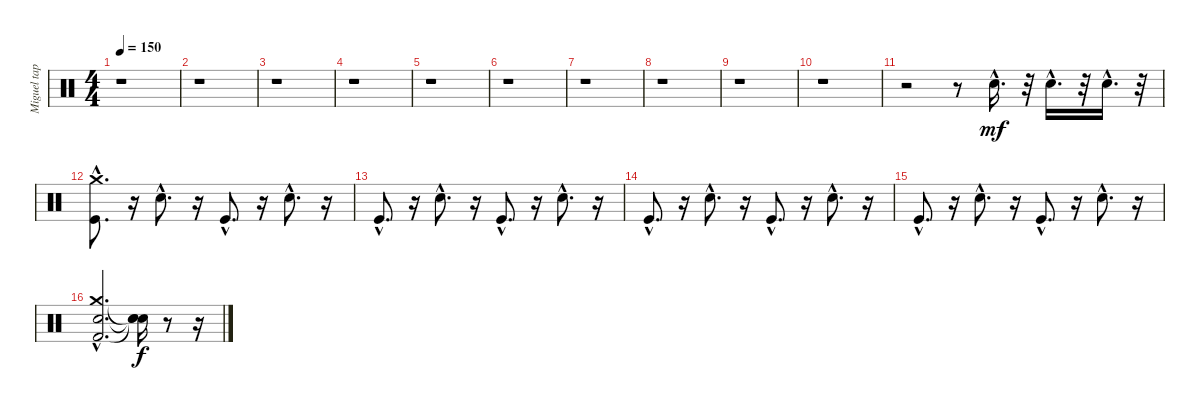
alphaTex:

\track ("Miguel tapia" "Miguel tap") {instrument percussion}
\staff {score}
\articulation defaults
\ts (4 4)
\tempo 150
\clef neutral
\ks c
r.1{dy mf} |
r.1 |
r.1 |
r.1 |
r.1 |
r.1 |
r.1 |
r.1 |
r.1 |
r.1 |
r.2 r.8 "Electric Snare (hit)"{hac}.16{d} r.32 "Electric Snare (hit)"{hac}.16{d} r.32 "Electric Snare (hit)"{hac}.16{d} r.32 |
("Kick (hit)"{hac} "Crash medium (hit)"{hac}).8{d} r.16 "Electric Snare (hit)"{hac}.8{d} r.16 "Kick (hit)"{hac}.8{d} r.16 "Electric Snare (hit)"{hac}.8{d} r.16 |
"Kick (hit)"{hac}.8{d} r.16 "Electric Snare (hit)"{hac}.8{d} r.16 "Kick (hit)"{hac}.8{d} r.16 "Electric Snare (hit)"{hac}.8{d} r.16 |
"Kick (hit)"{hac}.8{d} r.16 "Electric Snare (hit)"{hac}.8{d} r.16 "Kick (hit)"{hac}.8{d} r.16 "Electric Snare (hit)"{hac}.8{d} r.16 |
"Kick (hit)"{hac}.8{d} r.16 "Electric Snare (hit)"{hac}.8{d} r.16 "Kick (hit)"{hac}.8{d} r.16 "Electric Snare (hit)"{hac}.8{d} r.16 |
("Electric Snare (hit)"{hac} "Kick (hit) 2"{hac} "Crash medium (hit)"{hac}).2{d} ("Snare (hit)"{t} "Snare (hit)"{t} "Snare (hit)"{t}).16{dy f} r.8 r.16
